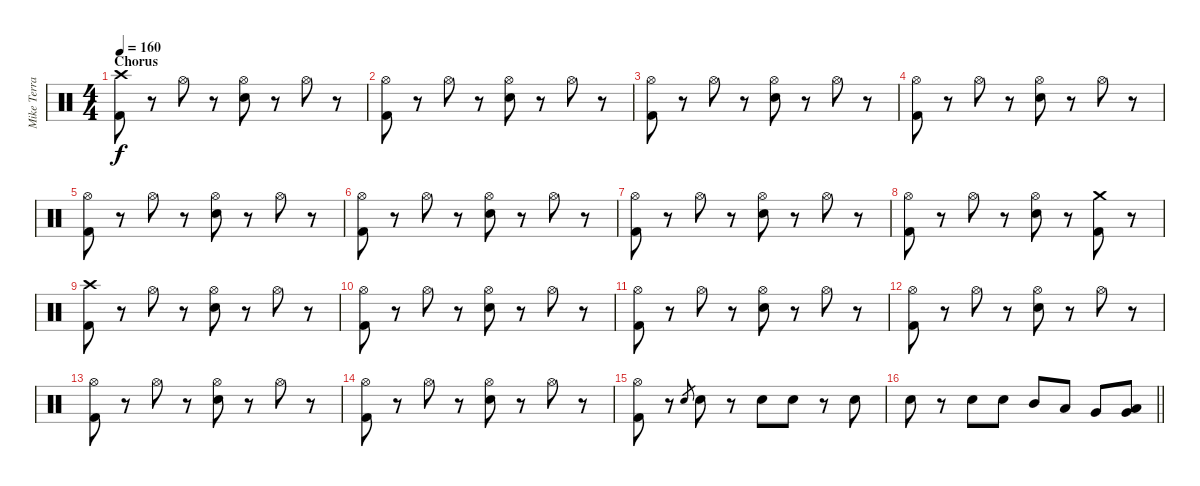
\track ("Mike Terrana" "Mike Terra") {instrument percussion}
\staff {score}
\articulation defaults
\ts (4 4)
\section ("" "Chorus")
\tempo 160
\clef neutral
\ks c
("Crash high (hit)" "Kick (hit) 2").8{dy f} r.8 "Hi-Hat (open)".8 r.8 ("Hi-Hat (open)" "Snare (hit) 2").8 r.8 "Hi-Hat (open)".8 r.8 |
("Hi-Hat (open)" "Kick (hit) 2").8 r.8 "Hi-Hat (open)".8 r.8 ("Hi-Hat (open)" "Snare (hit) 2").8 r.8 "Hi-Hat (open)".8 r.8 |
("Hi-Hat (open)" "Kick (hit) 2").8 r.8 "Hi-Hat (open)".8 r.8 ("Hi-Hat (open)" "Snare (hit) 2").8 r.8 "Hi-Hat (open)".8 r.8 |
("Hi-Hat (open)" "Kick (hit) 2").8 r.8 "Hi-Hat (open)".8 r.8 ("Hi-Hat (open)" "Snare (hit) 2").8 r.8 "Hi-Hat (open)".8 r.8 |
("Hi-Hat (open)" "Kick (hit) 2").8 r.8 "Hi-Hat (open)".8 r.8 ("Hi-Hat (open)" "Snare (hit) 2").8 r.8 "Hi-Hat (open)".8 r.8 |
("Hi-Hat (open)" "Kick (hit) 2").8 r.8 "Hi-Hat (open)".8 r.8 ("Hi-Hat (open)" "Snare (hit) 2").8 r.8 "Hi-Hat (open)".8 r.8 |
("Hi-Hat (open)" "Kick (hit) 2").8 r.8 "Hi-Hat (open)".8 r.8 ("Hi-Hat (open)" "Snare (hit) 2").8 r.8 "Hi-Hat (open)".8 r.8 |
("Hi-Hat (open)" "Kick (hit) 2").8 r.8 "Hi-Hat (open)".8 r.8 ("Hi-Hat (open)" "Snare (hit) 2").8 r.8 ("Crash medium (hit)" "Kick (hit) 2").8 r.8 |
("Crash high (hit)" "Kick (hit) 2").8 r.8 "Hi-Hat (open)".8 r.8 ("Hi-Hat (open)" "Snare (hit) 2").8 r.8 "Hi-Hat (open)".8 r.8 |
("Hi-Hat (open)" "Kick (hit) 2").8 r.8 "Hi-Hat (open)".8 r.8 ("Hi-Hat (open)" "Snare (hit) 2").8 r.8 "Hi-Hat (open)".8 r.8 |
("Hi-Hat (open)" "Kick (hit) 2").8 r.8 "Hi-Hat (open)".8 r.8 ("Hi-Hat (open)" "Snare (hit) 2").8 r.8 "Hi-Hat (open)".8 r.8 |
("Hi-Hat (open)" "Kick (hit) 2").8 r.8 "Hi-Hat (open)".8 r.8 ("Hi-Hat (open)" "Snare (hit) 2").8 r.8 "Hi-Hat (open)".8 r.8 |
("Hi-Hat (open)" "Kick (hit) 2").8 r.8 "Hi-Hat (open)".8 r.8 ("Hi-Hat (open)" "Snare (hit) 2").8 r.8 "Hi-Hat (open)".8 r.8 |
("Hi-Hat (open)" "Kick (hit) 2").8 r.8 "Hi-Hat (open)".8 r.8 ("Hi-Hat (open)" "Snare (hit) 2").8 r.8 "Hi-Hat (open)".8 r.8 |
("Hi-Hat (open)" "Kick (hit) 2").8 r.8 "Snare (hit) 2".8{gr} "Snare (hit) 2".8 r.8 "Snare (hit) 2".8 "Snare (hit) 2".8 r.8 "Snare (hit) 2".8 |
\barLineRight lightlight "Snare (hit) 2".8
r.8 "Snare (hit) 2".8 "Snare (hit) 2".8 "Mid Tom (hit)".8 "Low Tom (hit)".8 "Very Low Tom (hit)".8 ("Very Low Tom (hit)" "Low Floor Tom (hit)").8
